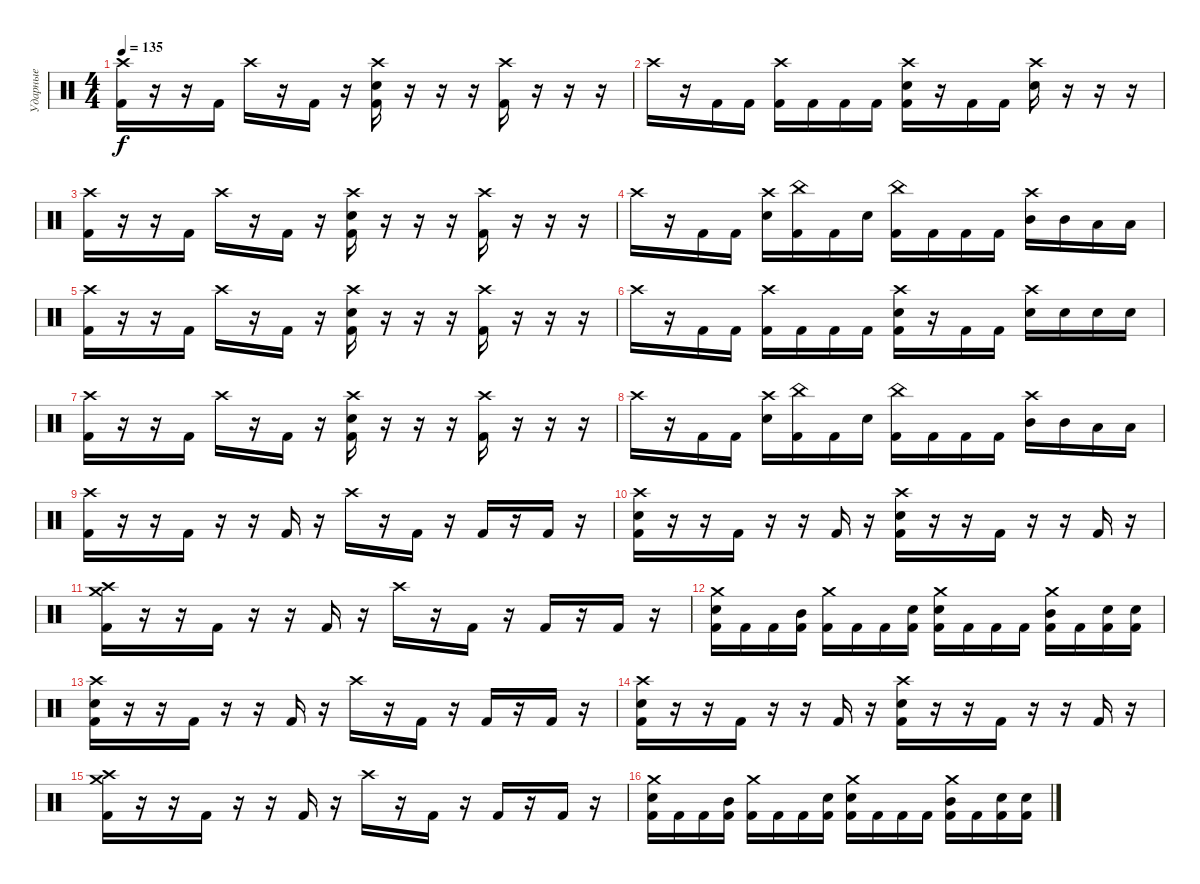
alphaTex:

\track ("Ударные" "Ударные") {instrument percussion}
\staff {score}
\articulation defaults
\ts (4 4)
\tempo 135
\clef neutral
\ks c
("Crash high (hit)" "Kick (hit) 2").16{dy f} r.16 r.16 "Kick (hit) 2".16 "Crash high (hit)".16 r.16 "Kick (hit) 2".16 r.16 ("Crash high (hit)" "Snare (hit) 2" "Kick (hit) 2").16 r.16 r.16 r.16 ("Crash high (hit)" "Kick (hit) 2").16 r.16 r.16 r.16 |
"Crash high (hit)".16 r.16 "Kick (hit) 2".16 "Kick (hit) 2".16 ("Crash high (hit)" "Kick (hit) 2").16 "Kick (hit) 2".16 "Kick (hit) 2".16 "Kick (hit) 2".16 ("Crash high (hit)" "Snare (hit) 2" "Kick (hit) 2").16 r.16 "Kick (hit) 2".16 "Kick (hit) 2".16 ("Crash high (hit)" "Snare (hit) 2").16 r.16 r.16 r.16 |
("Crash high (hit)" "Kick (hit) 2").16 r.16 r.16 "Kick (hit) 2".16 "Crash high (hit)".16 r.16 "Kick (hit) 2".16 r.16 ("Crash high (hit)" "Snare (hit) 2" "Kick (hit) 2").16 r.16 r.16 r.16 ("Crash high (hit)" "Kick (hit) 2").16 r.16 r.16 r.16 |
"Crash high (hit)".16 r.16 "Kick (hit) 2".16 "Kick (hit) 2".16 ("Crash high (hit)" "Electric Snare (hit)").16 ("China (hit)" "Kick (hit) 2").16 "Kick (hit) 2".16 "Electric Snare (hit)".16 ("China (hit)" "Kick (hit) 2").16 "Kick (hit) 2".16 "Kick (hit) 2".16 "Kick (hit) 2".16 ("Crash high (hit)" "Mid Tom (hit)").16 "Mid Tom (hit)".16 "Low Tom (hit)".16 "Low Tom (hit)".16 |
("Crash high (hit)" "Kick (hit) 2").16 r.16 r.16 "Kick (hit) 2".16 "Crash high (hit)".16 r.16 "Kick (hit) 2".16 r.16 ("Crash high (hit)" "Snare (hit) 2" "Kick (hit) 2").16 r.16 r.16 r.16 ("Crash high (hit)" "Kick (hit) 2").16 r.16 r.16 r.16 |
"Crash high (hit)".16 r.16 "Kick (hit) 2".16 "Kick (hit) 2".16 ("Crash high (hit)" "Kick (hit) 2").16 "Kick (hit) 2".16 "Kick (hit) 2".16 "Kick (hit) 2".16 ("Crash high (hit)" "Snare (hit) 2" "Kick (hit) 2").16 r.16 "Kick (hit) 2".16 "Kick (hit) 2".16 ("Crash high (hit)" "Snare (hit) 2").16 "Electric Snare (hit)".16 "Electric Snare (hit)".16 "Electric Snare (hit)".16 |
("Crash high (hit)" "Kick (hit) 2").16 r.16 r.16 "Kick (hit) 2".16 "Crash high (hit)".16 r.16 "Kick (hit) 2".16 r.16 ("Crash high (hit)" "Snare (hit) 2" "Kick (hit) 2").16 r.16 r.16 r.16 ("Crash high (hit)" "Kick (hit) 2").16 r.16 r.16 r.16 |
"Crash high (hit)".16 r.16 "Kick (hit) 2".16 "Kick (hit) 2".16 ("Crash high (hit)" "Electric Snare (hit)").16 ("China (hit)" "Kick (hit) 2").16 "Kick (hit) 2".16 "Electric Snare (hit)".16 ("China (hit)" "Kick (hit) 2").16 "Kick (hit) 2".16 "Kick (hit) 2".16 "Kick (hit) 2".16 ("Crash high (hit)" "Mid Tom (hit)").16 "Mid Tom (hit)".16 "Low Tom (hit)".16 "Low Tom (hit)".16 |
("Crash high (hit)" "Kick (hit) 2").16 r.16 r.16 "Kick (hit) 2".16 r.16 r.16 "Kick (hit) 2".16 r.16 "Crash high (hit)".16 r.16 "Kick (hit) 2".16 r.16 "Kick (hit) 2".16 r.16 "Kick (hit) 2".16 r.16 |
("Crash high (hit)" "Snare (hit) 2" "Kick (hit) 2").16 r.16 r.16 "Kick (hit) 2".16 r.16 r.16 "Kick (hit) 2".16 r.16 ("Crash high (hit)" "Snare (hit) 2" "Kick (hit) 2").16 r.16 r.16 "Kick (hit) 2".16 r.16 r.16 "Kick (hit) 2".16 r.16 |
("Crash high (hit)" "Crash medium (hit)" "Kick (hit) 2").16 r.16 r.16 "Kick (hit) 2".16 r.16 r.16 "Kick (hit) 2".16 r.16 "Crash high (hit)".16 r.16 "Kick (hit) 2".16 r.16 "Kick (hit) 2".16 r.16 "Kick (hit) 2".16 r.16 |
("Crash medium (hit)" "Snare (hit) 2" "Kick (hit) 2").16 "Kick (hit) 2".16 "Kick (hit) 2".16 ("Mid Tom (hit)" "Kick (hit) 2").16 ("Crash medium (hit)" "Kick (hit) 2").16 "Kick (hit) 2".16 "Kick (hit) 2".16 ("Electric Snare (hit)" "Kick (hit) 2").16 ("Crash medium (hit)" "Electric Snare (hit)" "Kick (hit) 2").16 "Kick (hit) 2".16 "Kick (hit) 2".16 "Kick (hit) 2".16 ("Crash medium (hit)" "Mid Tom (hit)" "Kick (hit) 2").16 "Kick (hit) 2".16 ("Electric Snare (hit)" "Kick (hit) 2").16 ("Electric Snare (hit)" "Kick (hit) 2").16 |
("Crash high (hit)" "Electric Snare (hit)" "Kick (hit) 2").16 r.16 r.16 "Kick (hit) 2".16 r.16 r.16 "Kick (hit) 2".16 r.16 "Crash high (hit)".16 r.16 "Kick (hit) 2".16 r.16 "Kick (hit) 2".16 r.16 "Kick (hit) 2".16 r.16 |
("Crash high (hit)" "Snare (hit) 2" "Kick (hit) 2").16 r.16 r.16 "Kick (hit) 2".16 r.16 r.16 "Kick (hit) 2".16 r.16 ("Crash high (hit)" "Snare (hit) 2" "Kick (hit) 2").16 r.16 r.16 "Kick (hit) 2".16 r.16 r.16 "Kick (hit) 2".16 r.16 |
("Crash high (hit)" "Crash medium (hit)" "Kick (hit) 2").16 r.16 r.16 "Kick (hit) 2".16 r.16 r.16 "Kick (hit) 2".16 r.16 "Crash high (hit)".16 r.16 "Kick (hit) 2".16 r.16 "Kick (hit) 2".16 r.16 "Kick (hit) 2".16 r.16 |
("Crash medium (hit)" "Snare (hit) 2" "Kick (hit) 2").16 "Kick (hit) 2".16 "Kick (hit) 2".16 ("Mid Tom (hit)" "Kick (hit) 2").16 ("Crash medium (hit)" "Kick (hit) 2").16 "Kick (hit) 2".16 "Kick (hit) 2".16 ("Electric Snare (hit)" "Kick (hit) 2").16 ("Crash medium (hit)" "Electric Snare (hit)" "Kick (hit) 2").16 "Kick (hit) 2".16 "Kick (hit) 2".16 "Kick (hit) 2".16 ("Crash medium (hit)" "Mid Tom (hit)" "Kick (hit) 2").16 "Kick (hit) 2".16 ("Electric Snare (hit)" "Kick (hit) 2").16 ("Electric Snare (hit)" "Kick (hit) 2").16
